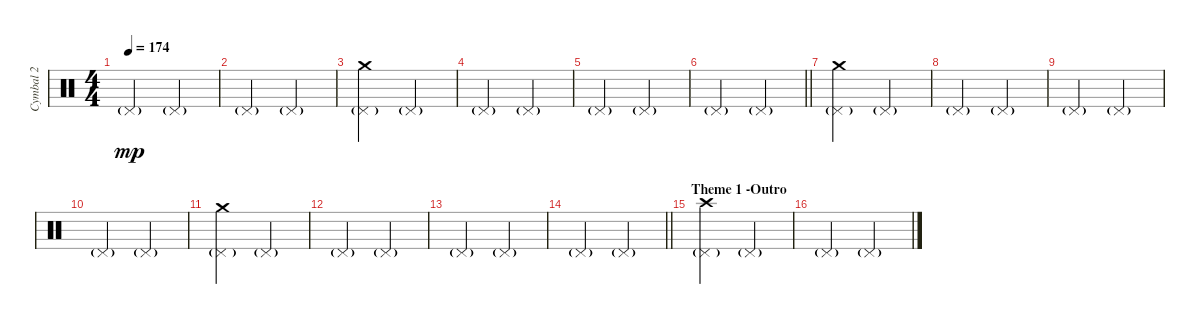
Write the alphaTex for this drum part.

\track ("Cymbal 2" "Cymbal 2") {instrument percussion}
\staff {score}
\articulation defaults
\ts (4 4)
\tempo 174
\clef neutral
\ks c "Pedal Hi-Hat (hit)"{g}.2{dy mp} "Pedal Hi-Hat (hit)"{g}.2
|
"Pedal Hi-Hat (hit)"{g}.2 "Pedal Hi-Hat (hit)"{g}.2 |
("Pedal Hi-Hat (hit)"{g} "Crash medium (hit)").2 "Pedal Hi-Hat (hit)"{g}.2 |
"Pedal Hi-Hat (hit)"{g}.2 "Pedal Hi-Hat (hit)"{g}.2 |
"Pedal Hi-Hat (hit)"{g}.2 "Pedal Hi-Hat (hit)"{g}.2 |
\barLineRight lightlight "Pedal Hi-Hat (hit)"{g}.2 "Pedal Hi-Hat (hit)"{g}.2
|
("Pedal Hi-Hat (hit)"{g} "Crash medium (hit)").2 "Pedal Hi-Hat (hit)"{g}.2 |
"Pedal Hi-Hat (hit)"{g}.2 "Pedal Hi-Hat (hit)"{g}.2 |
"Pedal Hi-Hat (hit)"{g}.2 "Pedal Hi-Hat (hit)"{g}.2 |
"Pedal Hi-Hat (hit)"{g}.2 "Pedal Hi-Hat (hit)"{g}.2 |
("Pedal Hi-Hat (hit)"{g} "Crash medium (hit)").2 "Pedal Hi-Hat (hit)"{g}.2 |
"Pedal Hi-Hat (hit)"{g}.2 "Pedal Hi-Hat (hit)"{g}.2 |
"Pedal Hi-Hat (hit)"{g}.2 "Pedal Hi-Hat (hit)"{g}.2 |
\barLineRight lightlight "Pedal Hi-Hat (hit)"{g}.2 "Pedal Hi-Hat (hit)"{g}.2
|
\section ("" "Theme 1 -Outro")
("Pedal Hi-Hat (hit)"{g} "Crash high (hit)").2 "Pedal Hi-Hat (hit)"{g}.2 |
"Pedal Hi-Hat (hit)"{g}.2 "Pedal Hi-Hat (hit)"{g}.2
